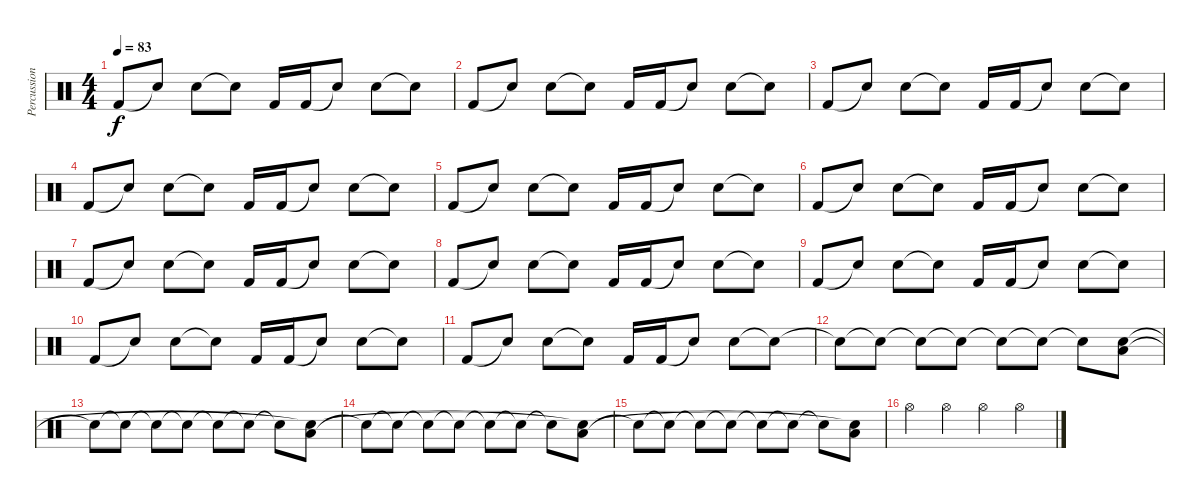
\track ("Percussion" "Percussion") {instrument percussion}
\staff {score}
\articulation defaults
\ts (4 4)
\tempo 83
\clef neutral
\ks c "Kick (hit) 2".8{dy f} "Snare (hit)"{t}.8 "Snare (hit) 2".8 "Snare (hit)"{t}.8 "Kick (hit) 2".16 "Kick (hit) 2".16 "Snare (hit)"{t}.8 "Snare (hit) 2".8 "Snare (hit)"{t}.8
|
"Kick (hit) 2".8 "Snare (hit)"{t}.8 "Snare (hit) 2".8 "Snare (hit)"{t}.8 "Kick (hit) 2".16 "Kick (hit) 2".16 "Snare (hit)"{t}.8 "Snare (hit) 2".8 "Snare (hit)"{t}.8 |
"Kick (hit) 2".8 "Snare (hit)"{t}.8 "Snare (hit) 2".8 "Snare (hit)"{t}.8 "Kick (hit) 2".16 "Kick (hit) 2".16 "Snare (hit)"{t}.8 "Snare (hit) 2".8 "Snare (hit)"{t}.8 |
"Kick (hit) 2".8 "Snare (hit)"{t}.8 "Snare (hit) 2".8 "Snare (hit)"{t}.8 "Kick (hit) 2".16 "Kick (hit) 2".16 "Snare (hit)"{t}.8 "Snare (hit) 2".8 "Snare (hit)"{t}.8 |
"Kick (hit) 2".8 "Snare (hit)"{t}.8 "Snare (hit) 2".8 "Snare (hit)"{t}.8 "Kick (hit) 2".16 "Kick (hit) 2".16 "Snare (hit)"{t}.8 "Snare (hit) 2".8 "Snare (hit)"{t}.8 |
"Kick (hit) 2".8 "Snare (hit)"{t}.8 "Snare (hit) 2".8 "Snare (hit)"{t}.8 "Kick (hit) 2".16 "Kick (hit) 2".16 "Snare (hit)"{t}.8 "Snare (hit) 2".8 "Snare (hit)"{t}.8 |
"Kick (hit) 2".8 "Snare (hit)"{t}.8 "Snare (hit) 2".8 "Snare (hit)"{t}.8 "Kick (hit) 2".16 "Kick (hit) 2".16 "Snare (hit)"{t}.8 "Snare (hit) 2".8 "Snare (hit)"{t}.8 |
"Kick (hit) 2".8 "Snare (hit)"{t}.8 "Snare (hit) 2".8 "Snare (hit)"{t}.8 "Kick (hit) 2".16 "Kick (hit) 2".16 "Snare (hit)"{t}.8 "Snare (hit) 2".8 "Snare (hit)"{t}.8 |
"Kick (hit) 2".8 "Snare (hit)"{t}.8 "Snare (hit) 2".8 "Snare (hit)"{t}.8 "Kick (hit) 2".16 "Kick (hit) 2".16 "Snare (hit)"{t}.8 "Snare (hit) 2".8 "Snare (hit)"{t}.8 |
"Kick (hit) 2".8 "Snare (hit)"{t}.8 "Snare (hit) 2".8 "Snare (hit)"{t}.8 "Kick (hit) 2".16 "Kick (hit) 2".16 "Snare (hit)"{t}.8 "Snare (hit) 2".8 "Snare (hit)"{t}.8 |
"Kick (hit) 2".8 "Snare (hit)"{t}.8 "Snare (hit) 2".8 "Snare (hit)"{t}.8 "Kick (hit) 2".16 "Kick (hit) 2".16 "Snare (hit)"{t}.8 "Snare (hit) 2".8 "Snare (hit)"{t}.8 |
"Snare (hit)"{t}.8 "Snare (hit)"{t}.8 "Snare (hit)"{t}.8 "Snare (hit)"{t}.8 "Snare (hit)"{t}.8 "Snare (hit)"{t}.8 "Snare (hit)"{t}.8 ("Low Tom (hit)" "Snare (hit)").8 |
"Snare (hit)"{t}.8 "Snare (hit)"{t}.8 "Snare (hit)"{t}.8 "Snare (hit)"{t}.8 "Snare (hit)"{t}.8 "Snare (hit)"{t}.8 "Snare (hit)"{t}.8 ("Low Tom (hit)" "Snare (hit)"{t}).8 |
"Snare (hit)"{t}.8 "Snare (hit)"{t}.8 "Snare (hit)"{t}.8 "Snare (hit)"{t}.8 "Snare (hit)"{t}.8 "Snare (hit)"{t}.8 "Snare (hit)"{t}.8 ("Low Tom (hit)" "Snare (hit)"{t}).8 |
"Snare (hit)"{t}.8 "Snare (hit)"{t}.8 "Snare (hit)"{t}.8 "Snare (hit)"{t}.8 "Snare (hit)"{t}.8 "Snare (hit)"{t}.8 "Snare (hit)"{t}.8 ("Low Tom (hit)" "Snare (hit)"{t}).8 |
"Hi-Hat (open)".4 "Hi-Hat (open)".4 "Hi-Hat (open)".4 "Hi-Hat (open)".4
